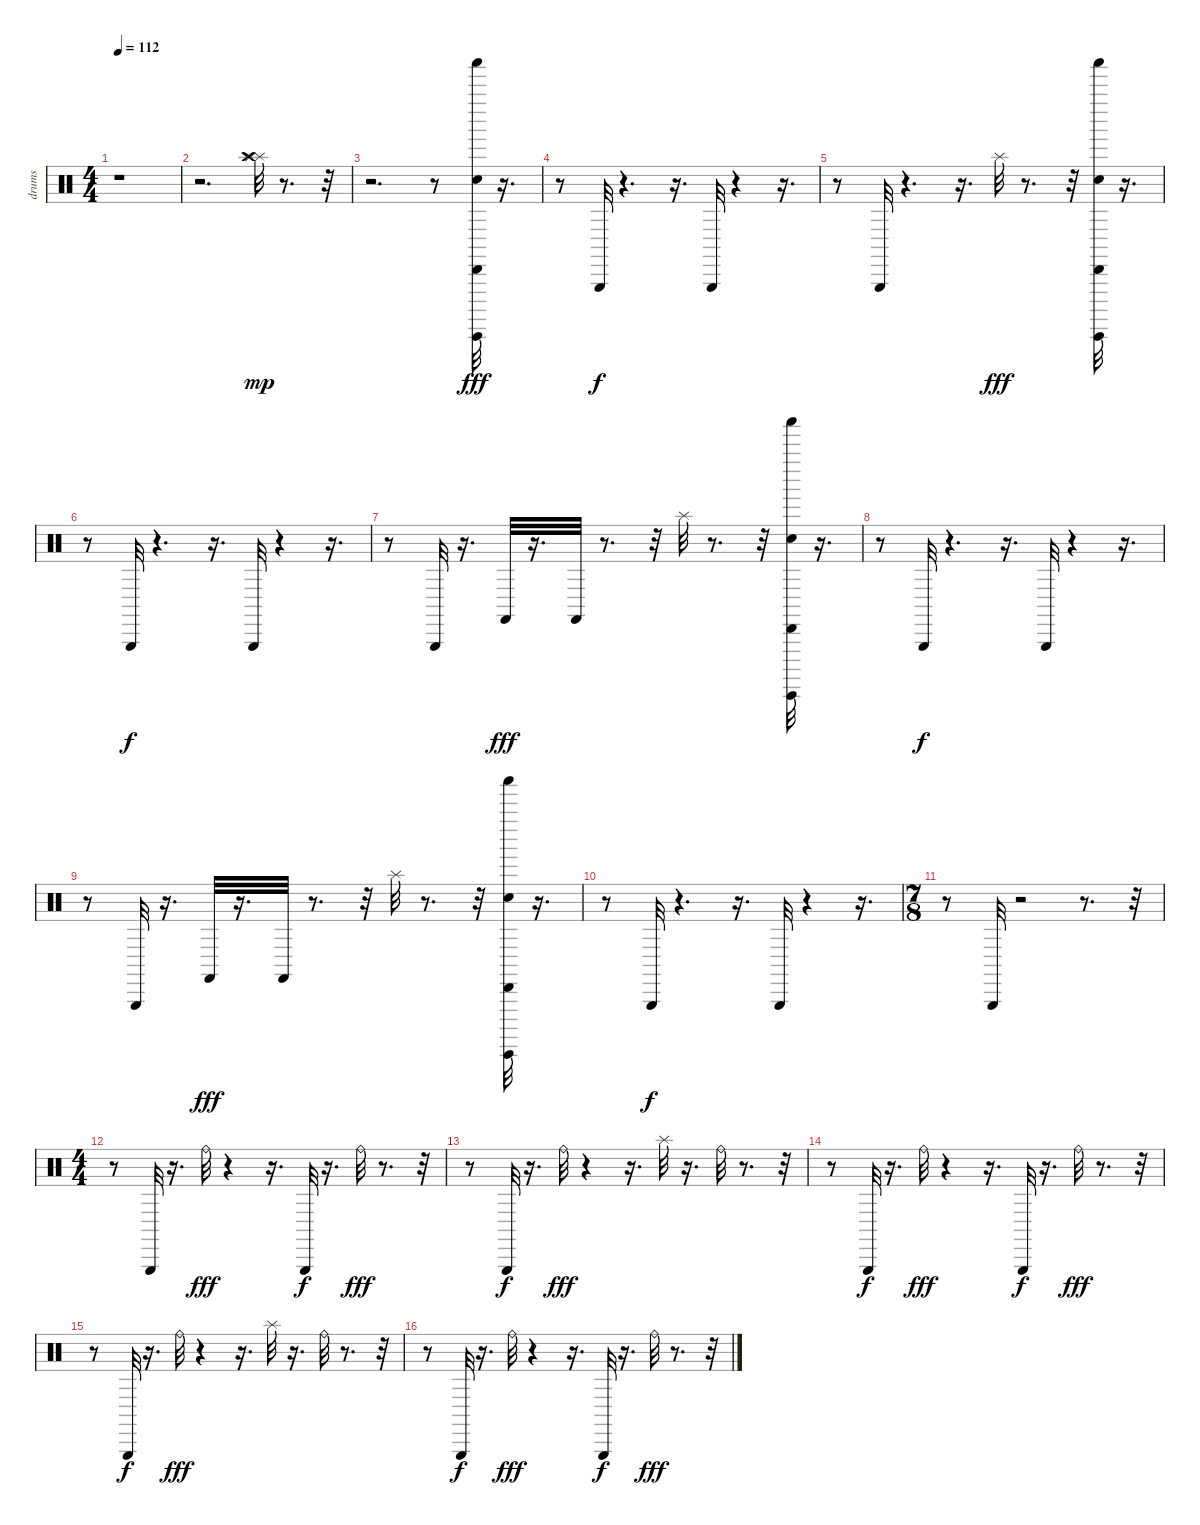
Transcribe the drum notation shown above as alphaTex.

\track ("drums" "drums") {instrument percussion}
\staff {score}
\articulation defaults
\ts (4 4)
\tempo 112
\clef neutral
\ks c
r.1{dy mp} |
r.2{d} ("Splash (hit)" "Splash (hit)" "Crash high (hit)").32 r.8{d} r.32 |
r.2{d} r.8 ("Snare (hit)" "Cabasa (hit)" "Guiro (hit)" "Shaker (hit)").32{dy fff} r.16{d} |
r.8 "Triangle (hit)".32{dy f} r.4{d} r.16{d} "Triangle (hit)".32 r.4 r.16{d} |
r.8 "Triangle (hit)".32 r.4{d} r.16{d} "Splash (hit)".32{dy fff} r.8{d} r.32 ("Snare (hit)" "Cabasa (hit)" "Guiro (hit)" "Shaker (hit)").32 r.16{d} |
r.8 "Triangle (hit)".32{dy f} r.4{d} r.16{d} "Triangle (hit)".32 r.4 r.16{d} |
r.8 "Triangle (hit)".32 r.16{d} "Castanets (hit)".32{dy fff} r.16{d} "Castanets (hit)".32 r.8{d} r.32 "Splash (hit)".32 r.8{d} r.32 ("Snare (hit)" "Cabasa (hit)" "Guiro (hit)" "Shaker (hit)").32 r.16{d} |
r.8 "Triangle (hit)".32{dy f} r.4{d} r.16{d} "Triangle (hit)".32 r.4 r.16{d} |
r.8 "Triangle (hit)".32 r.16{d} "Castanets (hit)".32{dy fff} r.16{d} "Castanets (hit)".32 r.8{d} r.32 "Splash (hit)".32 r.8{d} r.32 ("Snare (hit)" "Cabasa (hit)" "Guiro (hit)" "Shaker (hit)").32 r.16{d} |
r.8 "Triangle (hit)".32{dy f} r.4{d} r.16{d} "Triangle (hit)".32 r.4 r.16{d} |
\ts (7 8)
r.8 "Triangle (hit)".32 r.2 r.8{d} r.32 |
\ts (4 4)
r.8 "Triangle (hit)".32 r.16{d} "Ride (bell)".32{dy fff} r.4 r.16{d} "Triangle (hit)".32{dy f} r.16{d} "Ride (bell)".32{dy fff} r.8{d} r.32 |
r.8 "Triangle (hit)".32{dy f} r.16{d} "Ride (bell)".32{dy fff} r.4 r.16{d} "Splash (hit)".32 r.16{d} "Ride (bell)".32 r.8{d} r.32 |
r.8 "Triangle (hit)".32{dy f} r.16{d} "Ride (bell)".32{dy fff} r.4 r.16{d} "Triangle (hit)".32{dy f} r.16{d} "Ride (bell)".32{dy fff} r.8{d} r.32 |
r.8 "Triangle (hit)".32{dy f} r.16{d} "Ride (bell)".32{dy fff} r.4 r.16{d} "Splash (hit)".32 r.16{d} "Ride (bell)".32 r.8{d} r.32 |
r.8 "Triangle (hit)".32{dy f} r.16{d} "Ride (bell)".32{dy fff} r.4 r.16{d} "Triangle (hit)".32{dy f} r.16{d} "Ride (bell)".32{dy fff} r.8{d} r.32
